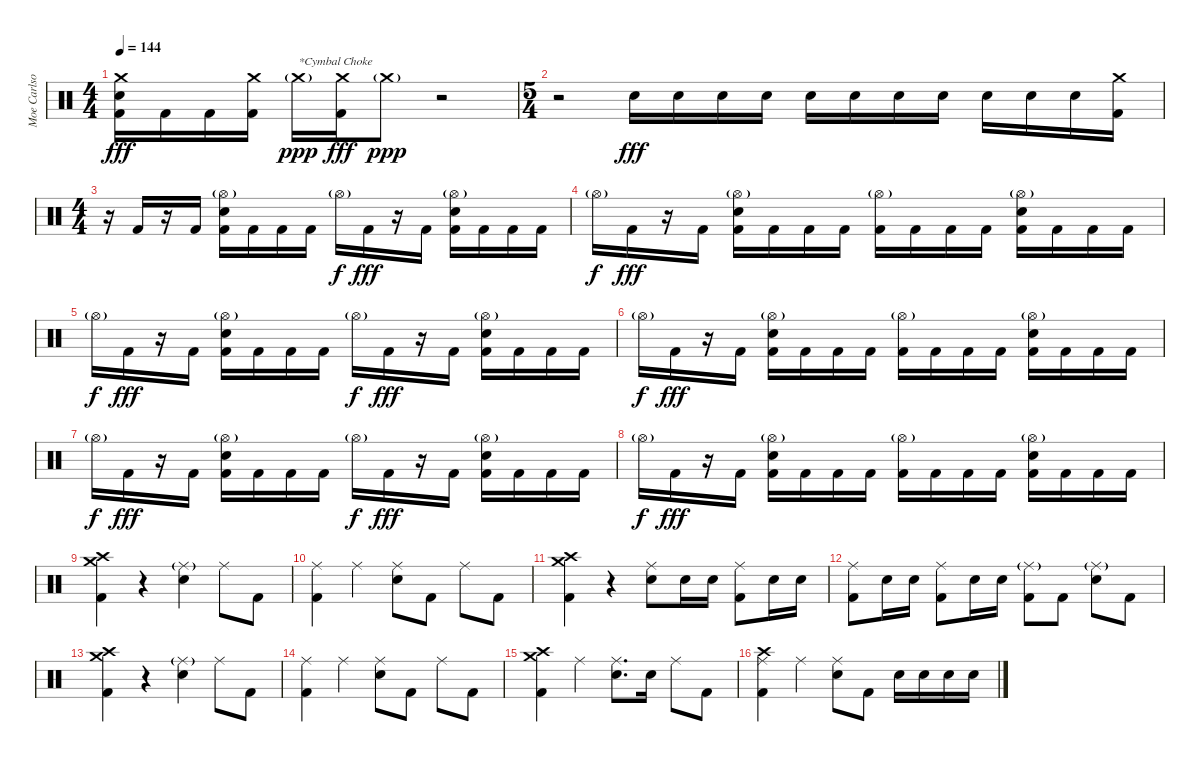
\track ("Moe Carlson" "Moe Carlso") {solo instrument percussion}
\staff {score}
\articulation defaults
\ts (4 4)
\tempo 144
\clef neutral
\ks c
("Crash medium (hit)" "Electric Snare (hit)" "Kick (hit) 2").16{dy fff} "Kick (hit) 2".16 "Kick (hit) 2".16 ("Crash medium (hit)" "Kick (hit) 2").16 "Crash medium (hit)"{g}.16{txt "*Cymbal Choke" dy ppp} ("Crash medium (hit)" "Kick (hit) 2").16{dy fff} "Crash medium (hit)"{g}.8{dy ppp} r.2 |
\ts (5 4)
r.2 "Electric Snare (hit)".16{dy fff} "Electric Snare (hit)".16 "Electric Snare (hit)".16 "Electric Snare (hit)".16 "Electric Snare (hit)".16 "Electric Snare (hit)".16 "Electric Snare (hit)".16 "Electric Snare (hit)".16 "Electric Snare (hit)".16 "Electric Snare (hit)".16 "Electric Snare (hit)".16 ("Crash medium (hit)" "Kick (hit) 2").16 |
\ts (4 4)
r.16 "Kick (hit) 2".16 r.16 "Kick (hit) 2".16 ("Hi-Hat (open)"{g} "Electric Snare (hit)" "Kick (hit) 2").16 "Kick (hit) 2".16 "Kick (hit) 2".16 "Kick (hit) 2".16 "Hi-Hat (open)"{g}.16{dy f} "Kick (hit) 2".16{dy fff} r.16 "Kick (hit) 2".16 ("Hi-Hat (open)"{g} "Electric Snare (hit)" "Kick (hit) 2").16 "Kick (hit) 2".16 "Kick (hit) 2".16 "Kick (hit) 2".16 |
"Hi-Hat (open)"{g}.16{dy f} "Kick (hit) 2".16{dy fff} r.16 "Kick (hit) 2".16 ("Hi-Hat (open)"{g} "Electric Snare (hit)" "Kick (hit) 2").16 "Kick (hit) 2".16 "Kick (hit) 2".16 "Kick (hit) 2".16 ("Hi-Hat (open)"{g} "Kick (hit) 2").16 "Kick (hit) 2".16 "Kick (hit) 2".16 "Kick (hit) 2".16 ("Hi-Hat (open)"{g} "Electric Snare (hit)" "Kick (hit) 2").16 "Kick (hit) 2".16 "Kick (hit) 2".16 "Kick (hit) 2".16 |
"Hi-Hat (open)"{g}.16{dy f} "Kick (hit) 2".16{dy fff} r.16 "Kick (hit) 2".16 ("Hi-Hat (open)"{g} "Electric Snare (hit)" "Kick (hit) 2").16 "Kick (hit) 2".16 "Kick (hit) 2".16 "Kick (hit) 2".16 "Hi-Hat (open)"{g}.16{dy f} "Kick (hit) 2".16{dy fff} r.16 "Kick (hit) 2".16 ("Hi-Hat (open)"{g} "Electric Snare (hit)" "Kick (hit) 2").16 "Kick (hit) 2".16 "Kick (hit) 2".16 "Kick (hit) 2".16 |
"Hi-Hat (open)"{g}.16{dy f} "Kick (hit) 2".16{dy fff} r.16 "Kick (hit) 2".16 ("Hi-Hat (open)"{g} "Electric Snare (hit)" "Kick (hit) 2").16 "Kick (hit) 2".16 "Kick (hit) 2".16 "Kick (hit) 2".16 ("Hi-Hat (open)"{g} "Kick (hit) 2").16 "Kick (hit) 2".16 "Kick (hit) 2".16 "Kick (hit) 2".16 ("Hi-Hat (open)"{g} "Electric Snare (hit)" "Kick (hit) 2").16 "Kick (hit) 2".16 "Kick (hit) 2".16 "Kick (hit) 2".16 |
"Hi-Hat (open)"{g}.16{dy f} "Kick (hit) 2".16{dy fff} r.16 "Kick (hit) 2".16 ("Hi-Hat (open)"{g} "Electric Snare (hit)" "Kick (hit) 2").16 "Kick (hit) 2".16 "Kick (hit) 2".16 "Kick (hit) 2".16 "Hi-Hat (open)"{g}.16{dy f} "Kick (hit) 2".16{dy fff} r.16 "Kick (hit) 2".16 ("Hi-Hat (open)"{g} "Electric Snare (hit)" "Kick (hit) 2").16 "Kick (hit) 2".16 "Kick (hit) 2".16 "Kick (hit) 2".16 |
"Hi-Hat (open)"{g}.16{dy f} "Kick (hit) 2".16{dy fff} r.16 "Kick (hit) 2".16 ("Hi-Hat (open)"{g} "Electric Snare (hit)" "Kick (hit) 2").16 "Kick (hit) 2".16 "Kick (hit) 2".16 "Kick (hit) 2".16 ("Hi-Hat (open)"{g} "Kick (hit) 2").16 "Kick (hit) 2".16 "Kick (hit) 2".16 "Kick (hit) 2".16 ("Hi-Hat (open)"{g} "Electric Snare (hit)" "Kick (hit) 2").16 "Kick (hit) 2".16 "Kick (hit) 2".16 "Kick (hit) 2".16 |
("Crash medium (hit)" "Crash high (hit)" "Kick (hit) 2").4 r.4 ("Ride (middle)"{g} "Electric Snare (hit)").4 "Ride (middle)".8 "Kick (hit) 2".8 |
("Ride (middle)" "Kick (hit) 2").4 "Ride (middle)".4 ("Ride (middle)" "Electric Snare (hit)").8 "Kick (hit) 2".8 "Ride (middle)".8 "Kick (hit) 2".8 |
("Crash medium (hit)" "Crash high (hit)" "Kick (hit) 2").4 r.4 ("Ride (middle)" "Electric Snare (hit)").8 "Electric Snare (hit)".16 "Electric Snare (hit)".16 ("Ride (middle)" "Kick (hit) 2").8 "Electric Snare (hit)".16 "Electric Snare (hit)".16 |
("Ride (middle)" "Kick (hit) 2").8 "Electric Snare (hit)".16 "Electric Snare (hit)".16 ("Ride (middle)" "Kick (hit) 2").8 "Electric Snare (hit)".16 "Electric Snare (hit)".16 ("Ride (middle)"{g} "Kick (hit) 2").8 "Kick (hit) 2".8 ("Ride (middle)"{g} "Electric Snare (hit)").8 "Kick (hit) 2".8 |
("Crash medium (hit)" "Crash high (hit)" "Kick (hit) 2").4 r.4 ("Ride (middle)"{g} "Electric Snare (hit)").4 "Ride (middle)".8 "Kick (hit) 2".8 |
("Ride (middle)" "Kick (hit) 2").4 "Ride (middle)".4 ("Ride (middle)" "Electric Snare (hit)").8 "Kick (hit) 2".8 "Ride (middle)".8 "Kick (hit) 2".8 |
("Crash medium (hit)" "Crash high (hit)" "Kick (hit) 2").4 "Ride (middle)".4 ("Ride (middle)" "Electric Snare (hit)").8{d} "Electric Snare (hit)".16 "Ride (middle)".8 "Kick (hit) 2".8 |
("Crash high (hit)" "Ride (middle)" "Kick (hit) 2").4 "Ride (middle)".4 ("Ride (middle)" "Electric Snare (hit)").8 "Kick (hit) 2".8 "Electric Snare (hit)".16 "Electric Snare (hit)".16 "Electric Snare (hit)".16 "Electric Snare (hit)".16
